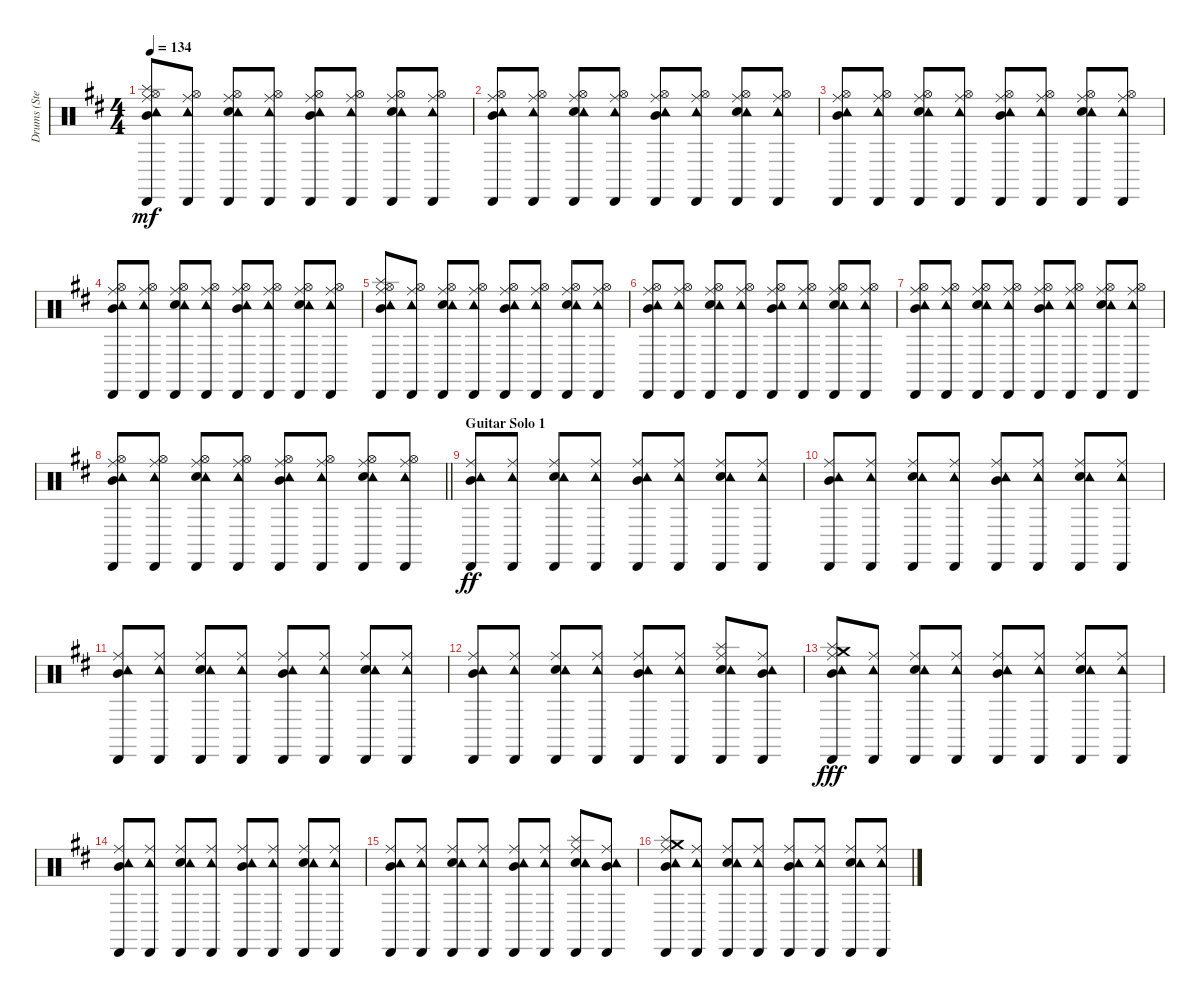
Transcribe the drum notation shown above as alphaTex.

\track ("Drums (Steven)" "Drums (Ste") {instrument percussion}
\staff {score}
\articulation defaults
\ts (4 4)
\tempo 134
\clef neutral
\ks d
("Hi-Hat (open)" "Mid Tom (hit)" "Splash (hit)" "Ride (middle)" "Tambourine (hit)" "Cabasa (hit)").8{dy mf} ("Hi-Hat (open)" "Ride (middle)" "Tambourine (hit)" "Cabasa (hit)").8 ("Electric Snare (hit)" "Hi-Hat (open)" "Ride (middle)" "Tambourine (hit)" "Cabasa (hit)").8 ("Hi-Hat (open)" "Ride (middle)" "Tambourine (hit)" "Cabasa (hit)").8 ("Hi-Hat (open)" "Mid Tom (hit)" "Ride (middle)" "Tambourine (hit)" "Cabasa (hit)").8 ("Hi-Hat (open)" "Ride (middle)" "Tambourine (hit)" "Cabasa (hit)").8 ("Electric Snare (hit)" "Hi-Hat (open)" "Ride (middle)" "Tambourine (hit)" "Cabasa (hit)").8 ("Hi-Hat (open)" "Ride (middle)" "Tambourine (hit)" "Cabasa (hit)").8 |
("Hi-Hat (open)" "Mid Tom (hit)" "Ride (middle)" "Tambourine (hit)" "Cabasa (hit)").8 ("Hi-Hat (open)" "Ride (middle)" "Tambourine (hit)" "Cabasa (hit)").8 ("Electric Snare (hit)" "Hi-Hat (open)" "Ride (middle)" "Tambourine (hit)" "Cabasa (hit)").8 ("Hi-Hat (open)" "Ride (middle)" "Tambourine (hit)" "Cabasa (hit)").8 ("Hi-Hat (open)" "Mid Tom (hit)" "Ride (middle)" "Tambourine (hit)" "Cabasa (hit)").8 ("Hi-Hat (open)" "Ride (middle)" "Tambourine (hit)" "Cabasa (hit)").8 ("Electric Snare (hit)" "Hi-Hat (open)" "Ride (middle)" "Tambourine (hit)" "Cabasa (hit)").8 ("Hi-Hat (open)" "Ride (middle)" "Tambourine (hit)" "Cabasa (hit)").8 |
("Hi-Hat (open)" "Mid Tom (hit)" "Ride (middle)" "Tambourine (hit)" "Cabasa (hit)").8 ("Hi-Hat (open)" "Ride (middle)" "Tambourine (hit)" "Cabasa (hit)").8 ("Electric Snare (hit)" "Hi-Hat (open)" "Ride (middle)" "Tambourine (hit)" "Cabasa (hit)").8 ("Hi-Hat (open)" "Ride (middle)" "Tambourine (hit)" "Cabasa (hit)").8 ("Hi-Hat (open)" "Mid Tom (hit)" "Ride (middle)" "Tambourine (hit)" "Cabasa (hit)").8 ("Hi-Hat (open)" "Ride (middle)" "Tambourine (hit)" "Cabasa (hit)").8 ("Electric Snare (hit)" "Hi-Hat (open)" "Ride (middle)" "Tambourine (hit)" "Cabasa (hit)").8 ("Hi-Hat (open)" "Ride (middle)" "Tambourine (hit)" "Cabasa (hit)").8 |
("Hi-Hat (open)" "Mid Tom (hit)" "Ride (middle)" "Tambourine (hit)" "Cabasa (hit)").8 ("Hi-Hat (open)" "Ride (middle)" "Tambourine (hit)" "Cabasa (hit)").8 ("Electric Snare (hit)" "Hi-Hat (open)" "Ride (middle)" "Tambourine (hit)" "Cabasa (hit)").8 ("Hi-Hat (open)" "Ride (middle)" "Tambourine (hit)" "Cabasa (hit)").8 ("Hi-Hat (open)" "Mid Tom (hit)" "Ride (middle)" "Tambourine (hit)" "Cabasa (hit)").8 ("Hi-Hat (open)" "Ride (middle)" "Tambourine (hit)" "Cabasa (hit)").8 ("Electric Snare (hit)" "Hi-Hat (open)" "Ride (middle)" "Tambourine (hit)" "Cabasa (hit)").8 ("Hi-Hat (open)" "Ride (middle)" "Tambourine (hit)" "Cabasa (hit)").8 |
("Hi-Hat (open)" "Mid Tom (hit)" "Splash (hit)" "Ride (middle)" "Tambourine (hit)" "Cabasa (hit)").8 ("Hi-Hat (open)" "Ride (middle)" "Tambourine (hit)" "Cabasa (hit)").8 ("Electric Snare (hit)" "Hi-Hat (open)" "Ride (middle)" "Tambourine (hit)" "Cabasa (hit)").8 ("Hi-Hat (open)" "Ride (middle)" "Tambourine (hit)" "Cabasa (hit)").8 ("Hi-Hat (open)" "Mid Tom (hit)" "Ride (middle)" "Tambourine (hit)" "Cabasa (hit)").8 ("Hi-Hat (open)" "Ride (middle)" "Tambourine (hit)" "Cabasa (hit)").8 ("Electric Snare (hit)" "Hi-Hat (open)" "Ride (middle)" "Tambourine (hit)" "Cabasa (hit)").8 ("Hi-Hat (open)" "Ride (middle)" "Tambourine (hit)" "Cabasa (hit)").8 |
("Hi-Hat (open)" "Mid Tom (hit)" "Ride (middle)" "Tambourine (hit)" "Cabasa (hit)").8 ("Hi-Hat (open)" "Ride (middle)" "Tambourine (hit)" "Cabasa (hit)").8 ("Electric Snare (hit)" "Hi-Hat (open)" "Ride (middle)" "Tambourine (hit)" "Cabasa (hit)").8 ("Hi-Hat (open)" "Ride (middle)" "Tambourine (hit)" "Cabasa (hit)").8 ("Hi-Hat (open)" "Mid Tom (hit)" "Ride (middle)" "Tambourine (hit)" "Cabasa (hit)").8 ("Hi-Hat (open)" "Ride (middle)" "Tambourine (hit)" "Cabasa (hit)").8 ("Electric Snare (hit)" "Hi-Hat (open)" "Ride (middle)" "Tambourine (hit)" "Cabasa (hit)").8 ("Hi-Hat (open)" "Ride (middle)" "Tambourine (hit)" "Cabasa (hit)").8 |
("Hi-Hat (open)" "Mid Tom (hit)" "Ride (middle)" "Tambourine (hit)" "Cabasa (hit)").8 ("Hi-Hat (open)" "Ride (middle)" "Tambourine (hit)" "Cabasa (hit)").8 ("Electric Snare (hit)" "Hi-Hat (open)" "Ride (middle)" "Tambourine (hit)" "Cabasa (hit)").8 ("Hi-Hat (open)" "Ride (middle)" "Tambourine (hit)" "Cabasa (hit)").8 ("Hi-Hat (open)" "Mid Tom (hit)" "Ride (middle)" "Tambourine (hit)" "Cabasa (hit)").8 ("Hi-Hat (open)" "Ride (middle)" "Tambourine (hit)" "Cabasa (hit)").8 ("Electric Snare (hit)" "Hi-Hat (open)" "Ride (middle)" "Tambourine (hit)" "Cabasa (hit)").8 ("Hi-Hat (open)" "Ride (middle)" "Tambourine (hit)" "Cabasa (hit)").8 |
\barLineRight lightlight
("Hi-Hat (open)" "Mid Tom (hit)" "Ride (middle)" "Tambourine (hit)" "Cabasa (hit)").8 ("Hi-Hat (open)" "Ride (middle)" "Tambourine (hit)" "Cabasa (hit)").8 ("Electric Snare (hit)" "Hi-Hat (open)" "Ride (middle)" "Tambourine (hit)" "Cabasa (hit)").8 ("Hi-Hat (open)" "Ride (middle)" "Tambourine (hit)" "Cabasa (hit)").8 ("Hi-Hat (open)" "Mid Tom (hit)" "Ride (middle)" "Tambourine (hit)" "Cabasa (hit)").8 ("Hi-Hat (open)" "Ride (middle)" "Tambourine (hit)" "Cabasa (hit)").8 ("Electric Snare (hit)" "Hi-Hat (open)" "Ride (middle)" "Tambourine (hit)" "Cabasa (hit)").8 ("Hi-Hat (open)" "Ride (middle)" "Tambourine (hit)" "Cabasa (hit)").8 |
\section ("" "Guitar Solo 1")
("Mid Tom (hit)" "Ride (middle)" "Tambourine (hit)" "Cabasa (hit)").8{dy ff} ("Ride (middle)" "Tambourine (hit)" "Cabasa (hit)").8 ("Electric Snare (hit)" "Ride (middle)" "Tambourine (hit)" "Cabasa (hit)").8 ("Ride (middle)" "Tambourine (hit)" "Cabasa (hit)").8 ("Mid Tom (hit)" "Ride (middle)" "Tambourine (hit)" "Cabasa (hit)").8 ("Ride (middle)" "Tambourine (hit)" "Cabasa (hit)").8 ("Electric Snare (hit)" "Ride (middle)" "Tambourine (hit)" "Cabasa (hit)").8 ("Ride (middle)" "Tambourine (hit)" "Cabasa (hit)").8 |
("Mid Tom (hit)" "Ride (middle)" "Tambourine (hit)" "Cabasa (hit)").8 ("Ride (middle)" "Tambourine (hit)" "Cabasa (hit)").8 ("Electric Snare (hit)" "Ride (middle)" "Tambourine (hit)" "Cabasa (hit)").8 ("Ride (middle)" "Tambourine (hit)" "Cabasa (hit)").8 ("Mid Tom (hit)" "Ride (middle)" "Tambourine (hit)" "Cabasa (hit)").8 ("Ride (middle)" "Tambourine (hit)" "Cabasa (hit)").8 ("Electric Snare (hit)" "Ride (middle)" "Tambourine (hit)" "Cabasa (hit)").8 ("Ride (middle)" "Tambourine (hit)" "Cabasa (hit)").8 |
("Mid Tom (hit)" "Ride (middle)" "Tambourine (hit)" "Cabasa (hit)").8 ("Ride (middle)" "Tambourine (hit)" "Cabasa (hit)").8 ("Electric Snare (hit)" "Ride (middle)" "Tambourine (hit)" "Cabasa (hit)").8 ("Ride (middle)" "Tambourine (hit)" "Cabasa (hit)").8 ("Mid Tom (hit)" "Ride (middle)" "Tambourine (hit)" "Cabasa (hit)").8 ("Ride (middle)" "Tambourine (hit)" "Cabasa (hit)").8 ("Electric Snare (hit)" "Ride (middle)" "Tambourine (hit)" "Cabasa (hit)").8 ("Ride (middle)" "Tambourine (hit)" "Cabasa (hit)").8 |
("Mid Tom (hit)" "Ride (middle)" "Tambourine (hit)" "Cabasa (hit)").8 ("Ride (middle)" "Tambourine (hit)" "Cabasa (hit)").8 ("Electric Snare (hit)" "Ride (middle)" "Tambourine (hit)" "Cabasa (hit)").8 ("Ride (middle)" "Tambourine (hit)" "Cabasa (hit)").8 ("Mid Tom (hit)" "Ride (middle)" "Tambourine (hit)" "Cabasa (hit)").8 ("Ride (middle)" "Tambourine (hit)" "Cabasa (hit)").8 ("Electric Snare (hit)" "Splash (hit)" "Ride (middle)" "Tambourine (hit)" "Cabasa (hit)").8 ("Mid Tom (hit)" "Ride (middle)" "Tambourine (hit)" "Cabasa (hit)").8 |
("Mid Tom (hit)" "Splash (hit)" "Crash medium (hit)" "Ride (middle)" "Tambourine (hit)" "Cabasa (hit)").8{dy fff} ("Ride (middle)" "Tambourine (hit)" "Cabasa (hit)").8 ("Electric Snare (hit)" "Ride (middle)" "Tambourine (hit)" "Cabasa (hit)").8 ("Ride (middle)" "Tambourine (hit)" "Cabasa (hit)").8 ("Mid Tom (hit)" "Ride (middle)" "Tambourine (hit)" "Cabasa (hit)").8 ("Ride (middle)" "Tambourine (hit)" "Cabasa (hit)").8 ("Electric Snare (hit)" "Ride (middle)" "Tambourine (hit)" "Cabasa (hit)").8 ("Ride (middle)" "Tambourine (hit)" "Cabasa (hit)").8 |
("Mid Tom (hit)" "Ride (middle)" "Tambourine (hit)" "Cabasa (hit)").8 ("Ride (middle)" "Tambourine (hit)" "Cabasa (hit)").8 ("Electric Snare (hit)" "Ride (middle)" "Tambourine (hit)" "Cabasa (hit)").8 ("Ride (middle)" "Tambourine (hit)" "Cabasa (hit)").8 ("Mid Tom (hit)" "Ride (middle)" "Tambourine (hit)" "Cabasa (hit)").8 ("Ride (middle)" "Tambourine (hit)" "Cabasa (hit)").8 ("Electric Snare (hit)" "Ride (middle)" "Tambourine (hit)" "Cabasa (hit)").8 ("Ride (middle)" "Tambourine (hit)" "Cabasa (hit)").8 |
("Mid Tom (hit)" "Ride (middle)" "Tambourine (hit)" "Cabasa (hit)").8 ("Ride (middle)" "Tambourine (hit)" "Cabasa (hit)").8 ("Electric Snare (hit)" "Ride (middle)" "Tambourine (hit)" "Cabasa (hit)").8 ("Ride (middle)" "Tambourine (hit)" "Cabasa (hit)").8 ("Mid Tom (hit)" "Ride (middle)" "Tambourine (hit)" "Cabasa (hit)").8 ("Ride (middle)" "Tambourine (hit)" "Cabasa (hit)").8 ("Electric Snare (hit)" "Splash (hit)" "Ride (middle)" "Tambourine (hit)" "Cabasa (hit)").8 ("Mid Tom (hit)" "Ride (middle)" "Tambourine (hit)" "Cabasa (hit)").8 |
("Mid Tom (hit)" "Splash (hit)" "Crash medium (hit)" "Ride (middle)" "Tambourine (hit)" "Cabasa (hit)").8 ("Ride (middle)" "Tambourine (hit)" "Cabasa (hit)").8 ("Electric Snare (hit)" "Ride (middle)" "Tambourine (hit)" "Cabasa (hit)").8 ("Ride (middle)" "Tambourine (hit)" "Cabasa (hit)").8 ("Mid Tom (hit)" "Ride (middle)" "Tambourine (hit)" "Cabasa (hit)").8 ("Ride (middle)" "Tambourine (hit)" "Cabasa (hit)").8 ("Electric Snare (hit)" "Ride (middle)" "Tambourine (hit)" "Cabasa (hit)").8 ("Ride (middle)" "Tambourine (hit)" "Cabasa (hit)").8
